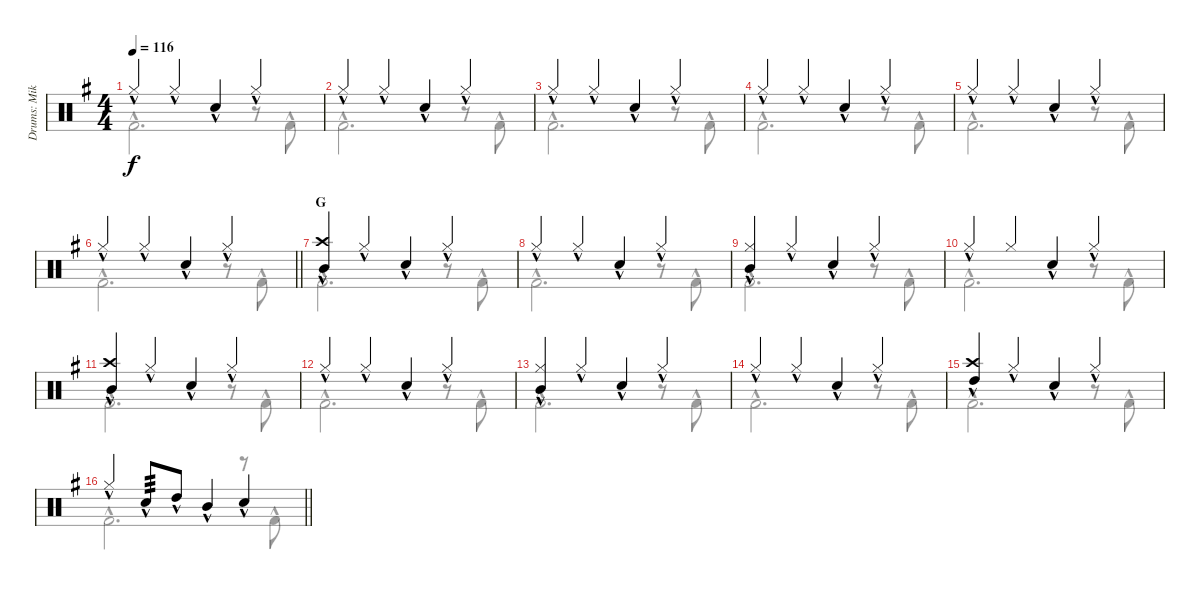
\track ("Drums: Mike" "Drums: Mik") {instrument percussion}
\staff {score}
\articulation defaults
\voice
\ts (4 4)
\tempo 116
\clef neutral
\ks g "Hi-Hat (closed)"{hac}.4{dy f} "Hi-Hat (closed)"{hac}.4 "Snare (hit) 2"{hac}.4 "Hi-Hat (closed)"{hac}.4
|
"Hi-Hat (closed)"{hac}.4 "Hi-Hat (closed)"{hac}.4 "Snare (hit) 2"{hac}.4 "Hi-Hat (closed)"{hac}.4 |
"Hi-Hat (closed)"{hac}.4 "Hi-Hat (closed)"{hac}.4 "Snare (hit) 2"{hac}.4 "Hi-Hat (closed)"{hac}.4 |
"Hi-Hat (closed)"{hac}.4 "Hi-Hat (closed)"{hac}.4 "Snare (hit) 2"{hac}.4 "Hi-Hat (closed)"{hac}.4 |
"Hi-Hat (closed)"{hac}.4 "Hi-Hat (closed)"{hac}.4 "Snare (hit) 2"{hac}.4 "Hi-Hat (closed)"{hac}.4 |
\barLineRight lightlight "Hi-Hat (closed)"{hac}.4 "Hi-Hat (closed)"{hac}.4 "Snare (hit) 2"{hac}.4 "Hi-Hat (closed)"{hac}.4
|
\section ("" "G")
("Crash high (hit)"{hac} "Mid Tom (hit)"{hac}).4 "Hi-Hat (closed)"{hac}.4 "Snare (hit) 2"{hac}.4 "Hi-Hat (closed)"{hac}.4 |
"Hi-Hat (closed)"{hac}.4 "Hi-Hat (closed)"{hac}.4 "Snare (hit) 2"{hac}.4 "Hi-Hat (closed)"{hac}.4 |
("Hi-Hat (closed)"{hac} "Mid Tom (hit)"{hac}).4 "Hi-Hat (closed)"{hac}.4 "Snare (hit) 2"{hac}.4 "Hi-Hat (closed)"{hac}.4 |
"Hi-Hat (closed)"{hac}.4 "Hi-Hat (closed)".4 "Snare (hit) 2"{hac}.4 "Hi-Hat (closed)"{hac}.4 |
("Crash high (hit)"{hac} "Mid Tom (hit)"{hac}).4 "Hi-Hat (closed)"{hac}.4 "Snare (hit) 2"{hac}.4 "Hi-Hat (closed)"{hac}.4 |
"Hi-Hat (closed)"{hac}.4 "Hi-Hat (closed)"{hac}.4 "Snare (hit) 2"{hac}.4 "Hi-Hat (closed)"{hac}.4 |
("Hi-Hat (closed)"{hac} "Mid Tom (hit)"{hac}).4 "Hi-Hat (closed)"{hac}.4 "Snare (hit) 2"{hac}.4 "Hi-Hat (closed)"{hac}.4 |
"Hi-Hat (closed)"{hac}.4 "Hi-Hat (closed)"{hac}.4 "Snare (hit) 2"{hac}.4 "Hi-Hat (closed)"{hac}.4 |
("Crash high (hit)"{hac} "High Tom (hit)"{hac}).4 "Hi-Hat (closed)"{hac}.4 "Snare (hit) 2"{hac}.4 "Hi-Hat (closed)"{hac}.4 |
\barLineRight lightlight "Hi-Hat (closed)"{hac}.4 "Snare (hit) 2"{hac}.8{tp 3} "High Tom (hit)"{hac}.8 "Mid Tom (hit)"{hac}.4 "Electric Snare (hit)"{hac}.4
\voice
\clef neutral
\ottava regular
\simile none
\ks g "Kick (hit) 2"{hac}.2{d dy f}
r.8 "Kick (hit) 2"{hac}.8 |
"Kick (hit) 2"{hac}.2{d} r.8 "Kick (hit) 2"{hac}.8 |
"Kick (hit) 2"{hac}.2{d} r.8 "Kick (hit) 2"{hac}.8 |
"Kick (hit) 2"{hac}.2{d} r.8 "Kick (hit) 2"{hac}.8 |
"Kick (hit) 2"{hac}.2{d} r.8 "Kick (hit) 2"{hac}.8 |
\barLineRight lightlight "Kick (hit) 2"{hac}.2{d}
r.8 "Kick (hit) 2"{hac}.8 |
"Kick (hit) 2"{hac}.2{d} r.8 "Kick (hit) 2"{hac}.8 |
"Kick (hit) 2"{hac}.2{d} r.8 "Kick (hit) 2"{hac}.8 |
"Kick (hit) 2"{hac}.2{d} r.8 "Kick (hit) 2"{hac}.8 |
"Kick (hit) 2"{hac}.2{d} r.8 "Kick (hit) 2"{hac}.8 |
"Kick (hit) 2"{hac}.2{d} r.8 "Kick (hit) 2"{hac}.8 |
"Kick (hit) 2"{hac}.2{d} r.8 "Kick (hit) 2"{hac}.8 |
"Kick (hit) 2"{hac}.2{d} r.8 "Kick (hit) 2"{hac}.8 |
"Kick (hit) 2"{hac}.2{d} r.8 "Kick (hit) 2"{hac}.8 |
"Kick (hit) 2"{hac}.2{d} r.8 "Kick (hit) 2"{hac}.8 |
\barLineRight lightlight "Kick (hit) 2"{hac}.2{d}
r.8 "Kick (hit) 2"{hac}.8
